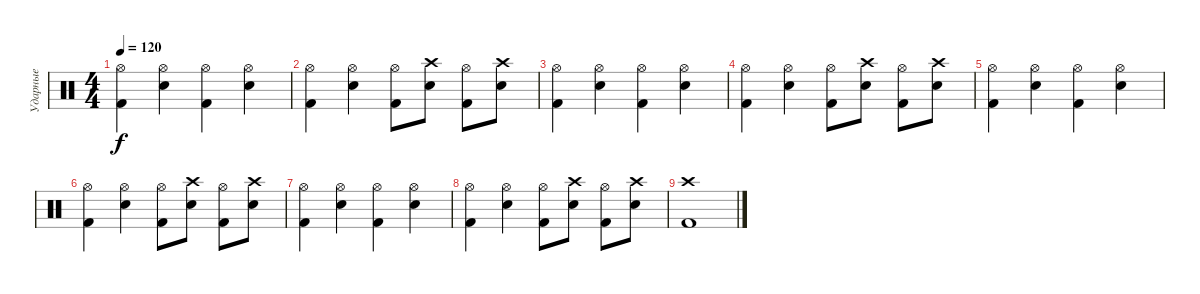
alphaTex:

\track ("Ударные" "Ударные") {instrument percussion}
\staff {score}
\articulation defaults
\ts (4 4)
\tempo 120
\clef neutral
\ks c
("Hi-Hat (open)" "Kick (hit) 2").4{dy f} ("Hi-Hat (open)" "Electric Snare (hit)").4 ("Hi-Hat (open)" "Kick (hit) 2").4 ("Hi-Hat (open)" "Electric Snare (hit)").4 |
("Hi-Hat (open)" "Kick (hit) 2").4 ("Hi-Hat (open)" "Electric Snare (hit)").4 ("Hi-Hat (open)" "Kick (hit) 2").8 ("Crash high (hit)" "Electric Snare (hit)").8 ("Hi-Hat (open)" "Kick (hit) 2").8 ("Crash high (hit)" "Electric Snare (hit)").8 |
("Hi-Hat (open)" "Kick (hit) 2").4 ("Hi-Hat (open)" "Electric Snare (hit)").4 ("Hi-Hat (open)" "Kick (hit) 2").4 ("Hi-Hat (open)" "Electric Snare (hit)").4 |
("Hi-Hat (open)" "Kick (hit) 2").4 ("Hi-Hat (open)" "Electric Snare (hit)").4 ("Hi-Hat (open)" "Kick (hit) 2").8 ("Crash high (hit)" "Electric Snare (hit)").8 ("Hi-Hat (open)" "Kick (hit) 2").8 ("Crash high (hit)" "Electric Snare (hit)").8 |
("Hi-Hat (open)" "Kick (hit) 2").4 ("Hi-Hat (open)" "Electric Snare (hit)").4 ("Hi-Hat (open)" "Kick (hit) 2").4 ("Hi-Hat (open)" "Electric Snare (hit)").4 |
("Hi-Hat (open)" "Kick (hit) 2").4 ("Hi-Hat (open)" "Electric Snare (hit)").4 ("Hi-Hat (open)" "Kick (hit) 2").8 ("Crash high (hit)" "Electric Snare (hit)").8 ("Hi-Hat (open)" "Kick (hit) 2").8 ("Crash high (hit)" "Electric Snare (hit)").8 |
("Hi-Hat (open)" "Kick (hit) 2").4 ("Hi-Hat (open)" "Electric Snare (hit)").4 ("Hi-Hat (open)" "Kick (hit) 2").4 ("Hi-Hat (open)" "Electric Snare (hit)").4 |
("Hi-Hat (open)" "Kick (hit) 2").4 ("Hi-Hat (open)" "Electric Snare (hit)").4 ("Hi-Hat (open)" "Kick (hit) 2").8 ("Crash high (hit)" "Electric Snare (hit)").8 ("Hi-Hat (open)" "Kick (hit) 2").8 ("Crash high (hit)" "Electric Snare (hit)").8 |
("Crash high (hit)" "Kick (hit) 2").1
